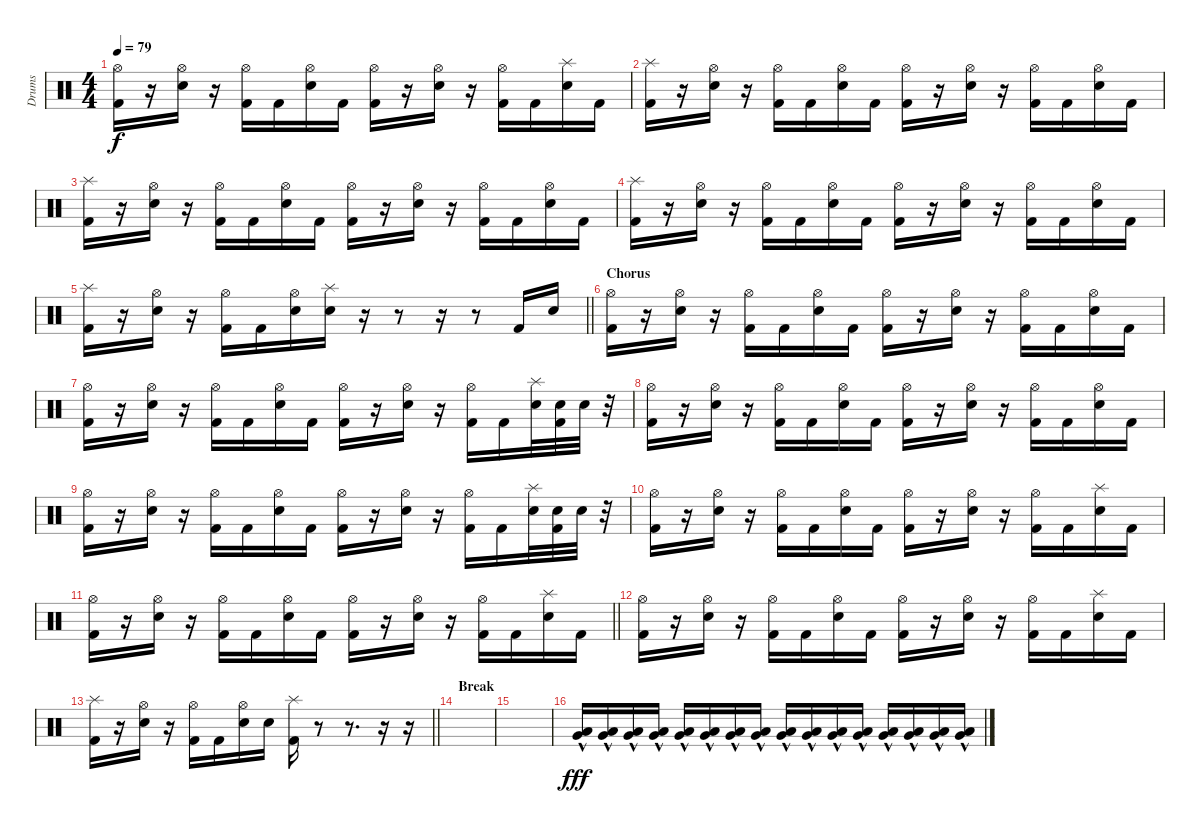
\track ("Drums" "Drums") {instrument percussion}
\staff {score}
\articulation defaults
\ts (4 4)
\tempo 79
\clef neutral
\ks c
("Hi-Hat (open)" "Kick (hit) 2").16{dy f} r.16 ("Hi-Hat (open)" "Electric Snare (hit)").16 r.16 ("Hi-Hat (open)" "Kick (hit) 2").16 "Kick (hit) 2".16 ("Hi-Hat (open)" "Electric Snare (hit)").16 "Kick (hit) 2".16 ("Hi-Hat (open)" "Kick (hit) 2").16 r.16 ("Hi-Hat (open)" "Electric Snare (hit)").16 r.16 ("Hi-Hat (open)" "Kick (hit) 2").16 "Kick (hit) 2".16 ("Splash (hit)" "Electric Snare (hit)").16 "Kick (hit) 2".16 |
("Splash (hit)" "Kick (hit) 2").16 r.16 ("Hi-Hat (open)" "Electric Snare (hit)").16 r.16 ("Hi-Hat (open)" "Kick (hit) 2").16 "Kick (hit) 2".16 ("Hi-Hat (open)" "Electric Snare (hit)").16 "Kick (hit) 2".16 ("Hi-Hat (open)" "Kick (hit) 2").16 r.16 ("Hi-Hat (open)" "Electric Snare (hit)").16 r.16 ("Hi-Hat (open)" "Kick (hit) 2").16 "Kick (hit) 2".16 ("Hi-Hat (open)" "Electric Snare (hit)").16 "Kick (hit) 2".16 |
("Splash (hit)" "Kick (hit) 2").16 r.16 ("Hi-Hat (open)" "Electric Snare (hit)").16 r.16 ("Hi-Hat (open)" "Kick (hit) 2").16 "Kick (hit) 2".16 ("Hi-Hat (open)" "Electric Snare (hit)").16 "Kick (hit) 2".16 ("Hi-Hat (open)" "Kick (hit) 2").16 r.16 ("Hi-Hat (open)" "Electric Snare (hit)").16 r.16 ("Hi-Hat (open)" "Kick (hit) 2").16 "Kick (hit) 2".16 ("Hi-Hat (open)" "Electric Snare (hit)").16 "Kick (hit) 2".16 |
("Splash (hit)" "Kick (hit) 2").16 r.16 ("Hi-Hat (open)" "Electric Snare (hit)").16 r.16 ("Hi-Hat (open)" "Kick (hit) 2").16 "Kick (hit) 2".16 ("Hi-Hat (open)" "Electric Snare (hit)").16 "Kick (hit) 2".16 ("Hi-Hat (open)" "Kick (hit) 2").16 r.16 ("Hi-Hat (open)" "Electric Snare (hit)").16 r.16 ("Hi-Hat (open)" "Kick (hit) 2").16 "Kick (hit) 2".16 ("Hi-Hat (open)" "Electric Snare (hit)").16 "Kick (hit) 2".16 |
\barLineRight lightlight
("Splash (hit)" "Kick (hit) 2").16 r.16 ("Hi-Hat (open)" "Electric Snare (hit)").16 r.16 ("Hi-Hat (open)" "Kick (hit) 2").16 "Kick (hit) 2".16 ("Hi-Hat (open)" "Electric Snare (hit)").16 ("Splash (hit)" "Electric Snare (hit)").16 r.16 r.8 r.16 r.8 "Kick (hit) 2".16 "Electric Snare (hit)".16 |
\section ("" "Chorus")
("Hi-Hat (open)" "Kick (hit) 2").16 r.16 ("Hi-Hat (open)" "Electric Snare (hit)").16 r.16 ("Hi-Hat (open)" "Kick (hit) 2").16 "Kick (hit) 2".16 ("Hi-Hat (open)" "Electric Snare (hit)").16 "Kick (hit) 2".16 ("Hi-Hat (open)" "Kick (hit) 2").16 r.16 ("Hi-Hat (open)" "Electric Snare (hit)").16 r.16 ("Hi-Hat (open)" "Kick (hit) 2").16 "Kick (hit) 2".16 ("Hi-Hat (open)" "Electric Snare (hit)").16 "Kick (hit) 2".16 |
("Hi-Hat (open)" "Kick (hit) 2").16 r.16 ("Hi-Hat (open)" "Electric Snare (hit)").16 r.16 ("Hi-Hat (open)" "Kick (hit) 2").16 "Kick (hit) 2".16 ("Hi-Hat (open)" "Electric Snare (hit)").16 "Kick (hit) 2".16 ("Hi-Hat (open)" "Kick (hit) 2").16 r.16 ("Hi-Hat (open)" "Electric Snare (hit)").16 r.16 ("Hi-Hat (open)" "Kick (hit) 2").16 "Kick (hit) 2".16 ("Splash (hit)" "Electric Snare (hit)").32 ("Electric Snare (hit)" "Kick (hit) 2").32 "Electric Snare (hit)".32 r.32 |
("Hi-Hat (open)" "Kick (hit) 2").16 r.16 ("Hi-Hat (open)" "Electric Snare (hit)").16 r.16 ("Hi-Hat (open)" "Kick (hit) 2").16 "Kick (hit) 2".16 ("Hi-Hat (open)" "Electric Snare (hit)").16 "Kick (hit) 2".16 ("Hi-Hat (open)" "Kick (hit) 2").16 r.16 ("Hi-Hat (open)" "Electric Snare (hit)").16 r.16 ("Hi-Hat (open)" "Kick (hit) 2").16 "Kick (hit) 2".16 ("Hi-Hat (open)" "Electric Snare (hit)").16 "Kick (hit) 2".16 |
("Hi-Hat (open)" "Kick (hit) 2").16 r.16 ("Hi-Hat (open)" "Electric Snare (hit)").16 r.16 ("Hi-Hat (open)" "Kick (hit) 2").16 "Kick (hit) 2".16 ("Hi-Hat (open)" "Electric Snare (hit)").16 "Kick (hit) 2".16 ("Hi-Hat (open)" "Kick (hit) 2").16 r.16 ("Hi-Hat (open)" "Electric Snare (hit)").16 r.16 ("Hi-Hat (open)" "Kick (hit) 2").16 "Kick (hit) 2".16 ("Splash (hit)" "Electric Snare (hit)").32 ("Electric Snare (hit)" "Kick (hit) 2").32 "Electric Snare (hit)".32 r.32 |
("Hi-Hat (open)" "Kick (hit) 2").16 r.16 ("Hi-Hat (open)" "Electric Snare (hit)").16 r.16 ("Hi-Hat (open)" "Kick (hit) 2").16 "Kick (hit) 2".16 ("Hi-Hat (open)" "Electric Snare (hit)").16 "Kick (hit) 2".16 ("Hi-Hat (open)" "Kick (hit) 2").16 r.16 ("Hi-Hat (open)" "Electric Snare (hit)").16 r.16 ("Hi-Hat (open)" "Kick (hit) 2").16 "Kick (hit) 2".16 ("Splash (hit)" "Electric Snare (hit)").16 "Kick (hit) 2".16 |
\barLineRight lightlight
("Hi-Hat (open)" "Kick (hit) 2").16 r.16 ("Hi-Hat (open)" "Electric Snare (hit)").16 r.16 ("Hi-Hat (open)" "Kick (hit) 2").16 "Kick (hit) 2".16 ("Hi-Hat (open)" "Electric Snare (hit)").16 "Kick (hit) 2".16 ("Hi-Hat (open)" "Kick (hit) 2").16 r.16 ("Hi-Hat (open)" "Electric Snare (hit)").16 r.16 ("Hi-Hat (open)" "Kick (hit) 2").16 "Kick (hit) 2".16 ("Splash (hit)" "Electric Snare (hit)").16 "Kick (hit) 2".16 |
("Hi-Hat (open)" "Kick (hit) 2").16 r.16 ("Hi-Hat (open)" "Electric Snare (hit)").16 r.16 ("Hi-Hat (open)" "Kick (hit) 2").16 "Kick (hit) 2".16 ("Hi-Hat (open)" "Electric Snare (hit)").16 "Kick (hit) 2".16 ("Hi-Hat (open)" "Kick (hit) 2").16 r.16 ("Hi-Hat (open)" "Electric Snare (hit)").16 r.16 ("Hi-Hat (open)" "Kick (hit) 2").16 "Kick (hit) 2".16 ("Splash (hit)" "Electric Snare (hit)").16 "Kick (hit) 2".16 |
\barLineRight lightlight
("Splash (hit)" "Kick (hit) 2").16 r.16 ("Hi-Hat (open)" "Electric Snare (hit)").16 r.16 ("Hi-Hat (open)" "Kick (hit) 2").16 "Kick (hit) 2".16 ("Hi-Hat (open)" "Electric Snare (hit)").16 "Electric Snare (hit)".16 ("Splash (hit)" "Kick (hit) 2").16 r.8 r.8{d} r.16 r.16 |
\section ("" "Break")
|
|
("Very Low Tom (hit)"{hac} "Low Floor Tom (hit)").16{dy fff} ("Very Low Tom (hit)"{hac} "Low Floor Tom (hit)"{hac}).16 ("Very Low Tom (hit)"{hac} "Low Floor Tom (hit)"{hac}).16 ("Very Low Tom (hit)"{hac} "Low Floor Tom (hit)"{hac}).16 ("Very Low Tom (hit)"{hac} "Low Floor Tom (hit)"{hac}).16 ("Very Low Tom (hit)"{hac} "Low Floor Tom (hit)"{hac}).16 ("Very Low Tom (hit)"{hac} "Low Floor Tom (hit)"{hac}).16 ("Very Low Tom (hit)"{hac} "Low Floor Tom (hit)"{hac}).16 ("Very Low Tom (hit)"{hac} "Low Floor Tom (hit)"{hac}).16 ("Very Low Tom (hit)"{hac} "Low Floor Tom (hit)"{hac}).16 ("Very Low Tom (hit)"{hac} "Low Floor Tom (hit)"{hac}).16 ("Very Low Tom (hit)"{hac} "Low Floor Tom (hit)"{hac}).16 ("Very Low Tom (hit)"{hac} "Low Floor Tom (hit)"{hac}).16 ("Very Low Tom (hit)"{hac} "Low Floor Tom (hit)"{hac}).16 ("Very Low Tom (hit)"{hac} "Low Floor Tom (hit)"{hac}).16 ("Very Low Tom (hit)"{hac} "Low Floor Tom (hit)"{hac}).16
